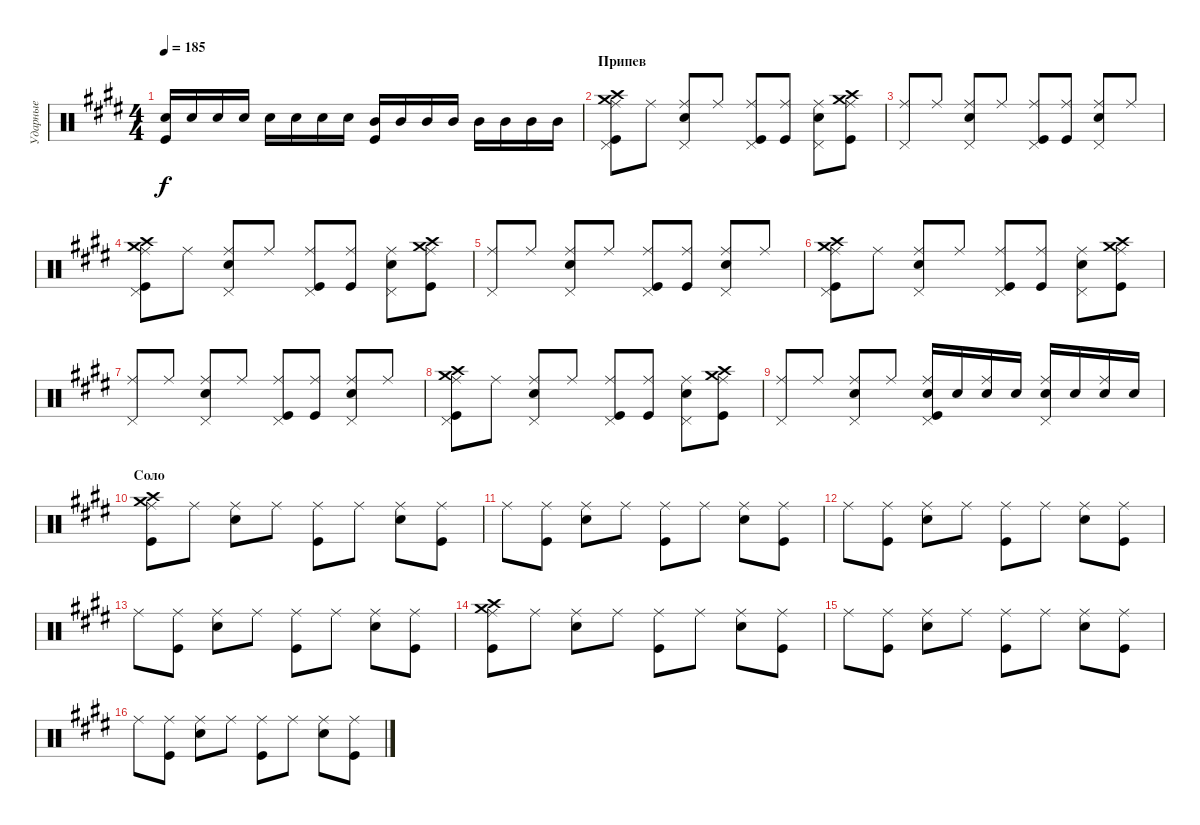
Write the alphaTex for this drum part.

\track ("Ударные" "Ударные") {instrument percussion}
\staff {score}
\articulation defaults
\ts (4 4)
\tempo 185
\clef neutral
\ks c#minor
("Electric Snare (hit)" "Kick (hit)").16{dy f} "Electric Snare (hit)".16 "Electric Snare (hit)".16 "Electric Snare (hit)".16 "Electric Snare (hit)".16 "Electric Snare (hit)".16 "Electric Snare (hit)".16 "Electric Snare (hit)".16 ("Mid Tom (hit)" "Kick (hit)").16 "Mid Tom (hit)".16 "Mid Tom (hit)".16 "Mid Tom (hit)".16 "Mid Tom (hit)".16 "Mid Tom (hit)".16 "Mid Tom (hit)".16 "Mid Tom (hit)".16 |
\section ("" "Припев")
("Ride (middle)" "Pedal Hi-Hat (hit)" "Crash medium (hit)" "Crash high (hit)" "Kick (hit)").8 "Ride (middle)".8 ("Ride (middle)" "Pedal Hi-Hat (hit)" "Electric Snare (hit)").8 "Ride (middle)".8 ("Ride (middle)" "Pedal Hi-Hat (hit)" "Kick (hit)").8 ("Kick (hit)" "Ride (middle)").8 ("Ride (middle)" "Pedal Hi-Hat (hit)" "Electric Snare (hit)").8 ("Kick (hit)" "Crash high (hit)" "Crash medium (hit)" "Ride (middle)").8 |
("Ride (middle)" "Pedal Hi-Hat (hit)").8 "Ride (middle)".8 ("Ride (middle)" "Pedal Hi-Hat (hit)" "Electric Snare (hit)").8 "Ride (middle)".8 ("Kick (hit)" "Ride (middle)" "Pedal Hi-Hat (hit)").8 ("Kick (hit)" "Ride (middle)").8 ("Ride (middle)" "Pedal Hi-Hat (hit)" "Electric Snare (hit)").8 "Ride (middle)".8 |
("Kick (hit)" "Pedal Hi-Hat (hit)" "Ride (middle)" "Crash high (hit)" "Crash medium (hit)").8 "Ride (middle)".8 ("Electric Snare (hit)" "Pedal Hi-Hat (hit)" "Ride (middle)").8 "Ride (middle)".8 ("Kick (hit)" "Pedal Hi-Hat (hit)" "Ride (middle)").8 ("Kick (hit)" "Ride (middle)").8 ("Electric Snare (hit)" "Pedal Hi-Hat (hit)" "Ride (middle)").8 ("Crash medium (hit)" "Crash high (hit)" "Kick (hit)" "Ride (middle)").8 |
("Ride (middle)" "Pedal Hi-Hat (hit)").8 "Ride (middle)".8 ("Ride (middle)" "Pedal Hi-Hat (hit)" "Electric Snare (hit)").8 "Ride (middle)".8 ("Kick (hit)" "Ride (middle)" "Pedal Hi-Hat (hit)").8 ("Kick (hit)" "Ride (middle)").8 ("Ride (middle)" "Pedal Hi-Hat (hit)" "Electric Snare (hit)").8 "Ride (middle)".8 |
("Ride (middle)" "Pedal Hi-Hat (hit)" "Crash medium (hit)" "Crash high (hit)" "Kick (hit)").8 "Ride (middle)".8 ("Ride (middle)" "Pedal Hi-Hat (hit)" "Electric Snare (hit)").8 "Ride (middle)".8 ("Ride (middle)" "Pedal Hi-Hat (hit)" "Kick (hit)").8 ("Kick (hit)" "Ride (middle)").8 ("Ride (middle)" "Pedal Hi-Hat (hit)" "Electric Snare (hit)").8 ("Kick (hit)" "Crash high (hit)" "Crash medium (hit)" "Ride (middle)").8 |
("Ride (middle)" "Pedal Hi-Hat (hit)").8 "Ride (middle)".8 ("Ride (middle)" "Pedal Hi-Hat (hit)" "Electric Snare (hit)").8 "Ride (middle)".8 ("Kick (hit)" "Ride (middle)" "Pedal Hi-Hat (hit)").8 ("Kick (hit)" "Ride (middle)").8 ("Ride (middle)" "Pedal Hi-Hat (hit)" "Electric Snare (hit)").8 "Ride (middle)".8 |
("Kick (hit)" "Pedal Hi-Hat (hit)" "Ride (middle)" "Crash high (hit)" "Crash medium (hit)").8 "Ride (middle)".8 ("Electric Snare (hit)" "Pedal Hi-Hat (hit)" "Ride (middle)").8 "Ride (middle)".8 ("Kick (hit)" "Pedal Hi-Hat (hit)" "Ride (middle)").8 ("Kick (hit)" "Ride (middle)").8 ("Electric Snare (hit)" "Pedal Hi-Hat (hit)" "Ride (middle)").8 ("Crash medium (hit)" "Crash high (hit)" "Kick (hit)" "Ride (middle)").8 |
("Ride (middle)" "Pedal Hi-Hat (hit)").8 "Ride (middle)".8 ("Ride (middle)" "Pedal Hi-Hat (hit)" "Electric Snare (hit)").8 "Ride (middle)".8 ("Electric Snare (hit)" "Kick (hit)" "Ride (middle)" "Pedal Hi-Hat (hit)").16 "Electric Snare (hit)".16 ("Electric Snare (hit)" "Ride (middle)").16 "Electric Snare (hit)".16 ("Electric Snare (hit)" "Ride (middle)" "Pedal Hi-Hat (hit)").16 "Electric Snare (hit)".16 ("Electric Snare (hit)" "Ride (middle)").16 "Electric Snare (hit)".16 |
\section ("" "Соло")
("Ride (middle)" "Kick (hit)" "Crash high (hit)" "Crash medium (hit)").8 "Ride (middle)".8 ("Electric Snare (hit)" "Ride (middle)").8 "Ride (middle)".8 ("Ride (middle)" "Kick (hit)").8 "Ride (middle)".8 ("Ride (middle)" "Electric Snare (hit)").8 ("Ride (middle)" "Kick (hit)").8 |
"Ride (middle)".8 ("Ride (middle)" "Kick (hit)").8 ("Ride (middle)" "Electric Snare (hit)").8 "Ride (middle)".8 ("Kick (hit)" "Ride (middle)").8 "Ride (middle)".8 ("Electric Snare (hit)" "Ride (middle)").8 ("Ride (middle)" "Kick (hit)").8 |
"Ride (middle)".8 ("Ride (middle)" "Kick (hit)").8 ("Ride (middle)" "Electric Snare (hit)").8 "Ride (middle)".8 ("Kick (hit)" "Ride (middle)").8 "Ride (middle)".8 ("Electric Snare (hit)" "Ride (middle)").8 ("Ride (middle)" "Kick (hit)").8 |
"Ride (middle)".8 ("Ride (middle)" "Kick (hit)").8 ("Ride (middle)" "Electric Snare (hit)").8 "Ride (middle)".8 ("Kick (hit)" "Ride (middle)").8 "Ride (middle)".8 ("Electric Snare (hit)" "Ride (middle)").8 ("Ride (middle)" "Kick (hit)").8 |
("Ride (middle)" "Kick (hit)" "Crash high (hit)" "Crash medium (hit)").8 "Ride (middle)".8 ("Electric Snare (hit)" "Ride (middle)").8 "Ride (middle)".8 ("Ride (middle)" "Kick (hit)").8 "Ride (middle)".8 ("Ride (middle)" "Electric Snare (hit)").8 ("Ride (middle)" "Kick (hit)").8 |
"Ride (middle)".8 ("Ride (middle)" "Kick (hit)").8 ("Ride (middle)" "Electric Snare (hit)").8 "Ride (middle)".8 ("Kick (hit)" "Ride (middle)").8 "Ride (middle)".8 ("Electric Snare (hit)" "Ride (middle)").8 ("Ride (middle)" "Kick (hit)").8 |
"Ride (middle)".8 ("Ride (middle)" "Kick (hit)").8 ("Ride (middle)" "Electric Snare (hit)").8 "Ride (middle)".8 ("Kick (hit)" "Ride (middle)").8 "Ride (middle)".8 ("Electric Snare (hit)" "Ride (middle)").8 ("Ride (middle)" "Kick (hit)").8
